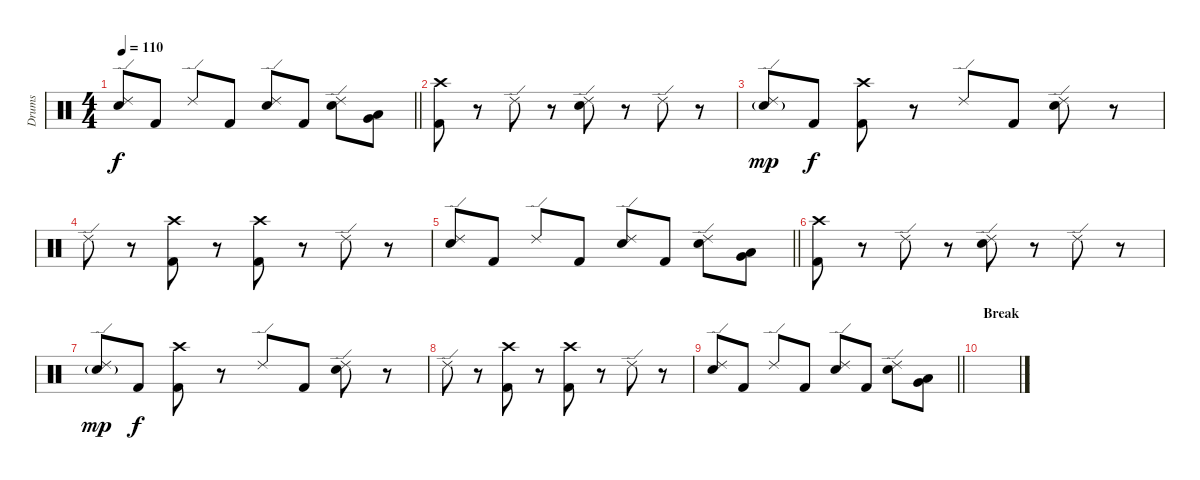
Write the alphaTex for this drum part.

\track ("Drums" "Drums") {instrument percussion}
\staff {score}
\articulation defaults
\ts (4 4)
\tempo 110
\clef neutral
\barLineRight lightlight
\ks c
("Ride (edge) 2" "Snare (hit) 2").8{dy f} "Kick (hit) 2".8 "Ride (edge) 2".8 "Kick (hit) 2".8 ("Ride (edge) 2" "Snare (hit) 2").8 "Kick (hit) 2".8 ("Ride (edge) 2" "Snare (hit) 2").8 ("Very Low Tom (hit)" "Low Floor Tom (hit)").8 |
("Crash high (hit)" "Kick (hit) 2").8 r.8 "Ride (edge) 2".8 r.8 ("Ride (edge) 2" "Snare (hit) 2").8 r.8 "Ride (edge) 2".8 r.8 |
("Ride (edge) 2" "Snare (hit) 2"{g}).8{dy mp} "Kick (hit) 2".8{dy f} ("Crash high (hit)" "Kick (hit) 2").8 r.8 "Ride (edge) 2".8 "Kick (hit) 2".8 ("Ride (edge) 2" "Snare (hit) 2").8 r.8 |
"Ride (edge) 2".8 r.8 ("Crash high (hit)" "Kick (hit) 2").8 r.8 ("Crash high (hit)" "Kick (hit) 2").8 r.8 "Ride (edge) 2".8 r.8 |
\barLineRight lightlight
("Ride (edge) 2" "Snare (hit) 2").8 "Kick (hit) 2".8 "Ride (edge) 2".8 "Kick (hit) 2".8 ("Ride (edge) 2" "Snare (hit) 2").8 "Kick (hit) 2".8 ("Ride (edge) 2" "Snare (hit) 2").8 ("Very Low Tom (hit)" "Low Floor Tom (hit)").8 |
("Crash high (hit)" "Kick (hit) 2").8 r.8 "Ride (edge) 2".8 r.8 ("Ride (edge) 2" "Snare (hit) 2").8 r.8 "Ride (edge) 2".8 r.8 |
("Ride (edge) 2" "Snare (hit) 2"{g}).8{dy mp} "Kick (hit) 2".8{dy f} ("Crash high (hit)" "Kick (hit) 2").8 r.8 "Ride (edge) 2".8 "Kick (hit) 2".8 ("Ride (edge) 2" "Snare (hit) 2").8 r.8 |
"Ride (edge) 2".8 r.8 ("Crash high (hit)" "Kick (hit) 2").8 r.8 ("Crash high (hit)" "Kick (hit) 2").8 r.8 "Ride (edge) 2".8 r.8 |
\barLineRight lightlight
("Ride (edge) 2" "Snare (hit) 2").8 "Kick (hit) 2".8 "Ride (edge) 2".8 "Kick (hit) 2".8 ("Ride (edge) 2" "Snare (hit) 2").8 "Kick (hit) 2".8 ("Ride (edge) 2" "Snare (hit) 2").8 ("Very Low Tom (hit)" "Low Floor Tom (hit)").8 |
\section ("" "Break")
